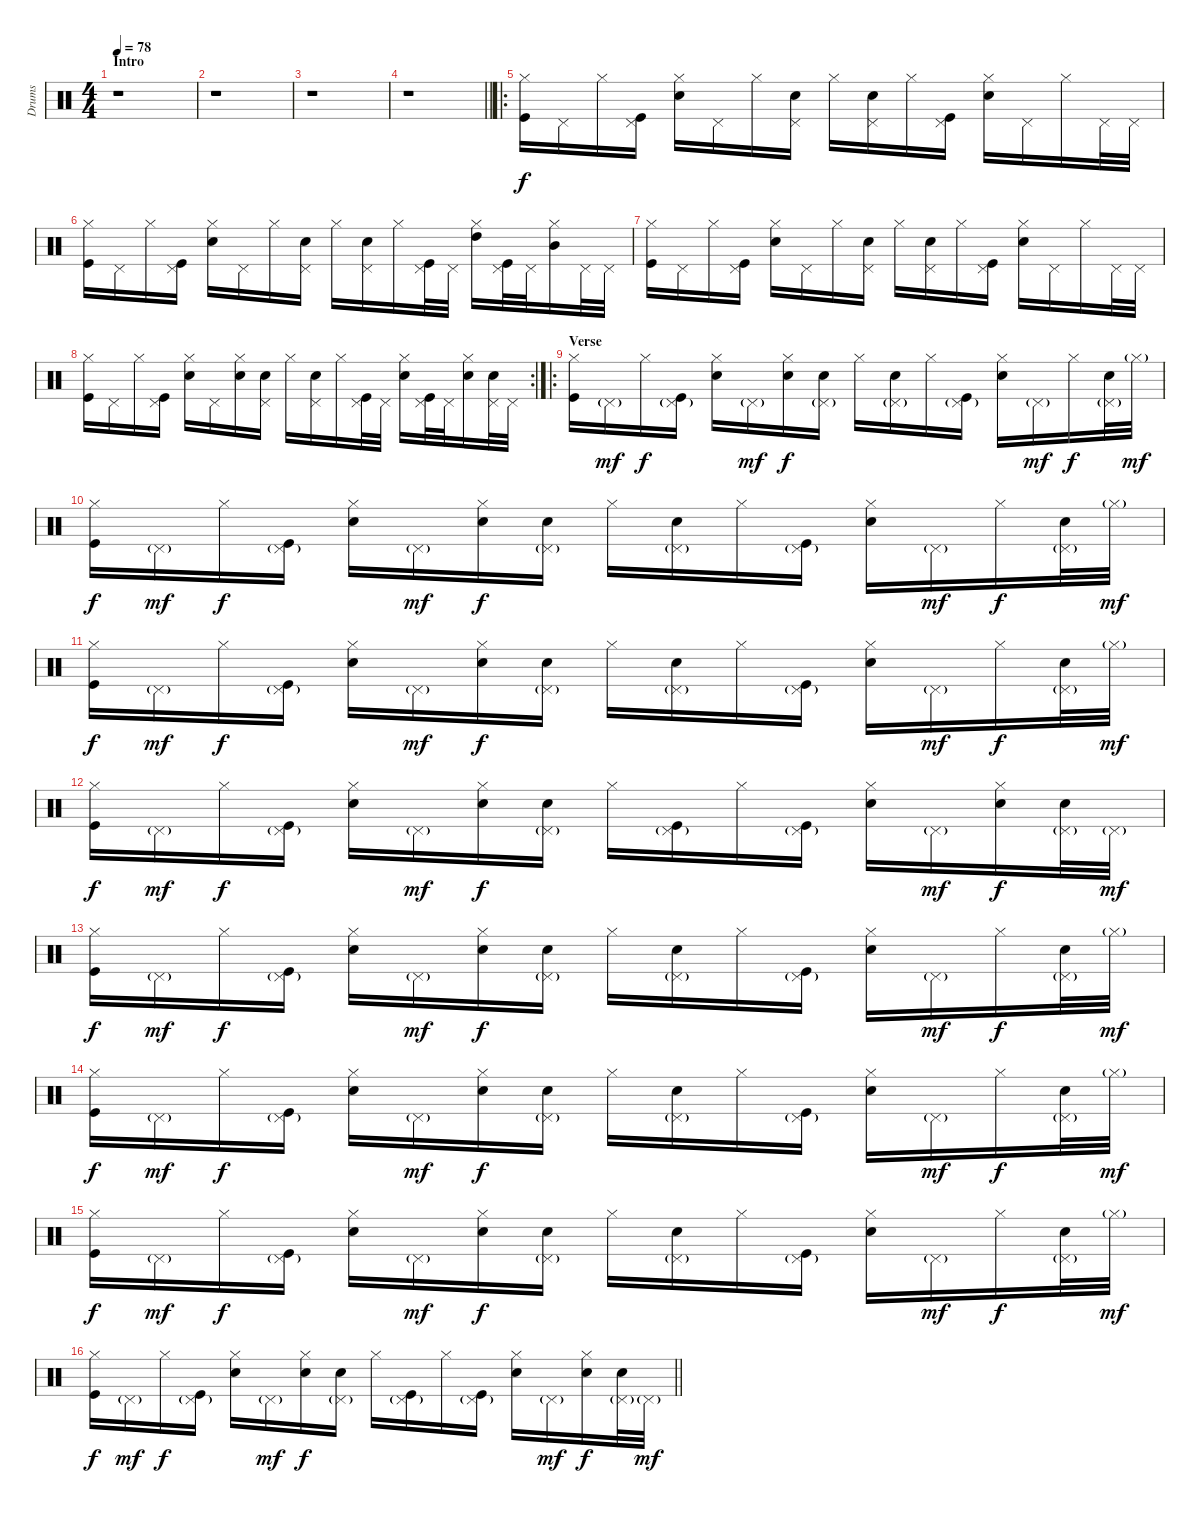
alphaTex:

\track ("Drums" "Drums") {instrument percussion}
\staff {score}
\articulation defaults
\ts (4 4)
\section ("" "Intro")
\tempo 78
\clef neutral
\ks c
r.1{dy f} |
r.1 |
r.1 |
\barLineRight lightlight
r.1 |
\ro
("Hi-Hat (closed)" "Kick (hit)").16 "Pedal Hi-Hat (hit)".16 "Hi-Hat (closed)".16 ("Pedal Hi-Hat (hit)" "Kick (hit)").16 ("Hi-Hat (closed)" "Snare (hit) 2").16 "Pedal Hi-Hat (hit)".16 "Hi-Hat (closed)".16 ("Pedal Hi-Hat (hit)" "Snare (hit) 2").16 "Hi-Hat (closed)".16 ("Pedal Hi-Hat (hit)" "Snare (hit) 2").16 "Hi-Hat (closed)".16 ("Pedal Hi-Hat (hit)" "Kick (hit)").16 ("Hi-Hat (closed)" "Snare (hit) 2").16 "Pedal Hi-Hat (hit)".16 "Hi-Hat (closed)".16 "Pedal Hi-Hat (hit)".32 "Pedal Hi-Hat (hit)".32 |
("Hi-Hat (closed)" "Kick (hit)").16 "Pedal Hi-Hat (hit)".16 "Hi-Hat (closed)".16 ("Pedal Hi-Hat (hit)" "Kick (hit)").16 ("Hi-Hat (closed)" "Snare (hit) 2").16 "Pedal Hi-Hat (hit)".16 "Hi-Hat (closed)".16 ("Pedal Hi-Hat (hit)" "Snare (hit) 2").16 "Hi-Hat (closed)".16 ("Pedal Hi-Hat (hit)" "Snare (hit) 2").16 "Hi-Hat (closed)".16 ("Pedal Hi-Hat (hit)" "Kick (hit)").32 "Pedal Hi-Hat (hit)".32 ("Hi-Hat (closed)" "High Tom (hit)").16 ("Pedal Hi-Hat (hit)" "Kick (hit)").32 "Pedal Hi-Hat (hit)".32 ("Hi-Hat (closed)" "Mid Tom (hit)").16 "Pedal Hi-Hat (hit)".32 "Pedal Hi-Hat (hit)".32 |
("Hi-Hat (closed)" "Kick (hit)").16 "Pedal Hi-Hat (hit)".16 "Hi-Hat (closed)".16 ("Pedal Hi-Hat (hit)" "Kick (hit)").16 ("Hi-Hat (closed)" "Snare (hit) 2").16 "Pedal Hi-Hat (hit)".16 "Hi-Hat (closed)".16 ("Pedal Hi-Hat (hit)" "Snare (hit) 2").16 "Hi-Hat (closed)".16 ("Pedal Hi-Hat (hit)" "Snare (hit) 2").16 "Hi-Hat (closed)".16 ("Pedal Hi-Hat (hit)" "Kick (hit)").16 ("Hi-Hat (closed)" "Snare (hit) 2").16 "Pedal Hi-Hat (hit)".16 "Hi-Hat (closed)".16 "Pedal Hi-Hat (hit)".32 "Pedal Hi-Hat (hit)".32 |
\rc 2
("Hi-Hat (closed)" "Kick (hit)").16 "Pedal Hi-Hat (hit)".16 "Hi-Hat (closed)".16 ("Pedal Hi-Hat (hit)" "Kick (hit)").16 ("Hi-Hat (closed)" "Snare (hit) 2").16 "Pedal Hi-Hat (hit)".16 ("Hi-Hat (closed)" "Snare (hit) 2").16 ("Pedal Hi-Hat (hit)" "Snare (hit) 2").16 "Hi-Hat (closed)".16 ("Pedal Hi-Hat (hit)" "Snare (hit) 2").16 "Hi-Hat (closed)".16 ("Pedal Hi-Hat (hit)" "Kick (hit)").32 "Pedal Hi-Hat (hit)".32 ("Hi-Hat (closed)" "Snare (hit) 2").16 ("Pedal Hi-Hat (hit)" "Kick (hit)").32 "Pedal Hi-Hat (hit)".32 ("Hi-Hat (closed)" "Snare (hit) 2").16 ("Pedal Hi-Hat (hit)" "Snare (hit) 2").32 "Pedal Hi-Hat (hit)".32 |
\ro
\section ("" "Verse")
("Hi-Hat (closed)" "Kick (hit)").16 "Pedal Hi-Hat (hit)"{g}.16{dy mf} "Hi-Hat (closed)".16{dy f} ("Pedal Hi-Hat (hit)"{g} "Kick (hit)").16 ("Hi-Hat (closed)" "Snare (hit) 2").16 "Pedal Hi-Hat (hit)"{g}.16{dy mf} ("Hi-Hat (closed)" "Snare (hit) 2").16{dy f} ("Pedal Hi-Hat (hit)"{g} "Snare (hit) 2").16 "Hi-Hat (closed)".16 ("Pedal Hi-Hat (hit)"{g} "Snare (hit) 2").16 "Hi-Hat (closed)".16 ("Pedal Hi-Hat (hit)"{g} "Kick (hit)").16 ("Hi-Hat (closed)" "Snare (hit) 2").16 "Pedal Hi-Hat (hit)"{g}.16{dy mf} "Hi-Hat (closed)".16{dy f} ("Pedal Hi-Hat (hit)"{g} "Snare (hit) 2").32 "Hi-Hat (closed)"{g}.32{dy mf} |
("Hi-Hat (closed)" "Kick (hit)").16{dy f} "Pedal Hi-Hat (hit)"{g}.16{dy mf} "Hi-Hat (closed)".16{dy f} ("Pedal Hi-Hat (hit)"{g} "Kick (hit)").16 ("Hi-Hat (closed)" "Snare (hit) 2").16 "Pedal Hi-Hat (hit)"{g}.16{dy mf} ("Hi-Hat (closed)" "Snare (hit) 2").16{dy f} ("Pedal Hi-Hat (hit)"{g} "Snare (hit) 2").16 "Hi-Hat (closed)".16 ("Pedal Hi-Hat (hit)"{g} "Snare (hit) 2").16 "Hi-Hat (closed)".16 ("Pedal Hi-Hat (hit)"{g} "Kick (hit)").16 ("Hi-Hat (closed)" "Snare (hit) 2").16 "Pedal Hi-Hat (hit)"{g}.16{dy mf} "Hi-Hat (closed)".16{dy f} ("Pedal Hi-Hat (hit)"{g} "Snare (hit) 2").32 "Hi-Hat (closed)"{g}.32{dy mf} |
("Hi-Hat (closed)" "Kick (hit)").16{dy f} "Pedal Hi-Hat (hit)"{g}.16{dy mf} "Hi-Hat (closed)".16{dy f} ("Pedal Hi-Hat (hit)"{g} "Kick (hit)").16 ("Hi-Hat (closed)" "Snare (hit) 2").16 "Pedal Hi-Hat (hit)"{g}.16{dy mf} ("Hi-Hat (closed)" "Snare (hit) 2").16{dy f} ("Pedal Hi-Hat (hit)"{g} "Snare (hit) 2").16 "Hi-Hat (closed)".16 ("Pedal Hi-Hat (hit)"{g} "Snare (hit) 2").16 "Hi-Hat (closed)".16 ("Pedal Hi-Hat (hit)"{g} "Kick (hit)").16 ("Hi-Hat (closed)" "Snare (hit) 2").16 "Pedal Hi-Hat (hit)"{g}.16{dy mf} "Hi-Hat (closed)".16{dy f} ("Pedal Hi-Hat (hit)"{g} "Snare (hit) 2").32 "Hi-Hat (closed)"{g}.32{dy mf} |
("Hi-Hat (closed)" "Kick (hit)").16{dy f} "Pedal Hi-Hat (hit)"{g}.16{dy mf} "Hi-Hat (closed)".16{dy f} ("Pedal Hi-Hat (hit)"{g} "Kick (hit)").16 ("Hi-Hat (closed)" "Snare (hit) 2").16 "Pedal Hi-Hat (hit)"{g}.16{dy mf} ("Hi-Hat (closed)" "Snare (hit) 2").16{dy f} ("Pedal Hi-Hat (hit)"{g} "Snare (hit) 2").16 "Hi-Hat (closed)".16 ("Pedal Hi-Hat (hit)"{g} "Kick (hit)").16 "Hi-Hat (closed)".16 ("Pedal Hi-Hat (hit)"{g} "Kick (hit)").16 ("Hi-Hat (closed)" "Snare (hit) 2").16 "Pedal Hi-Hat (hit)"{g}.16{dy mf} ("Hi-Hat (closed)" "Snare (hit) 2").16{dy f} ("Pedal Hi-Hat (hit)"{g} "Snare (hit) 2").32 "Pedal Hi-Hat (hit)"{g}.32{dy mf} |
("Hi-Hat (closed)" "Kick (hit)").16{dy f} "Pedal Hi-Hat (hit)"{g}.16{dy mf} "Hi-Hat (closed)".16{dy f} ("Pedal Hi-Hat (hit)"{g} "Kick (hit)").16 ("Hi-Hat (closed)" "Snare (hit) 2").16 "Pedal Hi-Hat (hit)"{g}.16{dy mf} ("Hi-Hat (closed)" "Snare (hit) 2").16{dy f} ("Pedal Hi-Hat (hit)"{g} "Snare (hit) 2").16 "Hi-Hat (closed)".16 ("Pedal Hi-Hat (hit)"{g} "Snare (hit) 2").16 "Hi-Hat (closed)".16 ("Pedal Hi-Hat (hit)"{g} "Kick (hit)").16 ("Hi-Hat (closed)" "Snare (hit) 2").16 "Pedal Hi-Hat (hit)"{g}.16{dy mf} "Hi-Hat (closed)".16{dy f} ("Pedal Hi-Hat (hit)"{g} "Snare (hit) 2").32 "Hi-Hat (closed)"{g}.32{dy mf} |
("Hi-Hat (closed)" "Kick (hit)").16{dy f} "Pedal Hi-Hat (hit)"{g}.16{dy mf} "Hi-Hat (closed)".16{dy f} ("Pedal Hi-Hat (hit)"{g} "Kick (hit)").16 ("Hi-Hat (closed)" "Snare (hit) 2").16 "Pedal Hi-Hat (hit)"{g}.16{dy mf} ("Hi-Hat (closed)" "Snare (hit) 2").16{dy f} ("Pedal Hi-Hat (hit)"{g} "Snare (hit) 2").16 "Hi-Hat (closed)".16 ("Pedal Hi-Hat (hit)"{g} "Snare (hit) 2").16 "Hi-Hat (closed)".16 ("Pedal Hi-Hat (hit)"{g} "Kick (hit)").16 ("Hi-Hat (closed)" "Snare (hit) 2").16 "Pedal Hi-Hat (hit)"{g}.16{dy mf} "Hi-Hat (closed)".16{dy f} ("Pedal Hi-Hat (hit)"{g} "Snare (hit) 2").32 "Hi-Hat (closed)"{g}.32{dy mf} |
("Hi-Hat (closed)" "Kick (hit)").16{dy f} "Pedal Hi-Hat (hit)"{g}.16{dy mf} "Hi-Hat (closed)".16{dy f} ("Pedal Hi-Hat (hit)"{g} "Kick (hit)").16 ("Hi-Hat (closed)" "Snare (hit) 2").16 "Pedal Hi-Hat (hit)"{g}.16{dy mf} ("Hi-Hat (closed)" "Snare (hit) 2").16{dy f} ("Pedal Hi-Hat (hit)"{g} "Snare (hit) 2").16 "Hi-Hat (closed)".16 ("Pedal Hi-Hat (hit)"{g} "Snare (hit) 2").16 "Hi-Hat (closed)".16 ("Pedal Hi-Hat (hit)"{g} "Kick (hit)").16 ("Hi-Hat (closed)" "Snare (hit) 2").16 "Pedal Hi-Hat (hit)"{g}.16{dy mf} "Hi-Hat (closed)".16{dy f} ("Pedal Hi-Hat (hit)"{g} "Snare (hit) 2").32 "Hi-Hat (closed)"{g}.32{dy mf} |
\barLineRight lightlight
("Hi-Hat (closed)" "Kick (hit)").16{dy f} "Pedal Hi-Hat (hit)"{g}.16{dy mf} "Hi-Hat (closed)".16{dy f} ("Pedal Hi-Hat (hit)"{g} "Kick (hit)").16 ("Hi-Hat (closed)" "Snare (hit) 2").16 "Pedal Hi-Hat (hit)"{g}.16{dy mf} ("Hi-Hat (closed)" "Snare (hit) 2").16{dy f} ("Pedal Hi-Hat (hit)"{g} "Snare (hit) 2").16 "Hi-Hat (closed)".16 ("Pedal Hi-Hat (hit)"{g} "Kick (hit)").16 "Hi-Hat (closed)".16 ("Pedal Hi-Hat (hit)"{g} "Kick (hit)").16 ("Hi-Hat (closed)" "Snare (hit) 2").16 "Pedal Hi-Hat (hit)"{g}.16{dy mf} ("Hi-Hat (closed)" "Snare (hit) 2").16{dy f} ("Pedal Hi-Hat (hit)"{g} "Snare (hit) 2").32 "Pedal Hi-Hat (hit)"{g}.32{dy mf}
